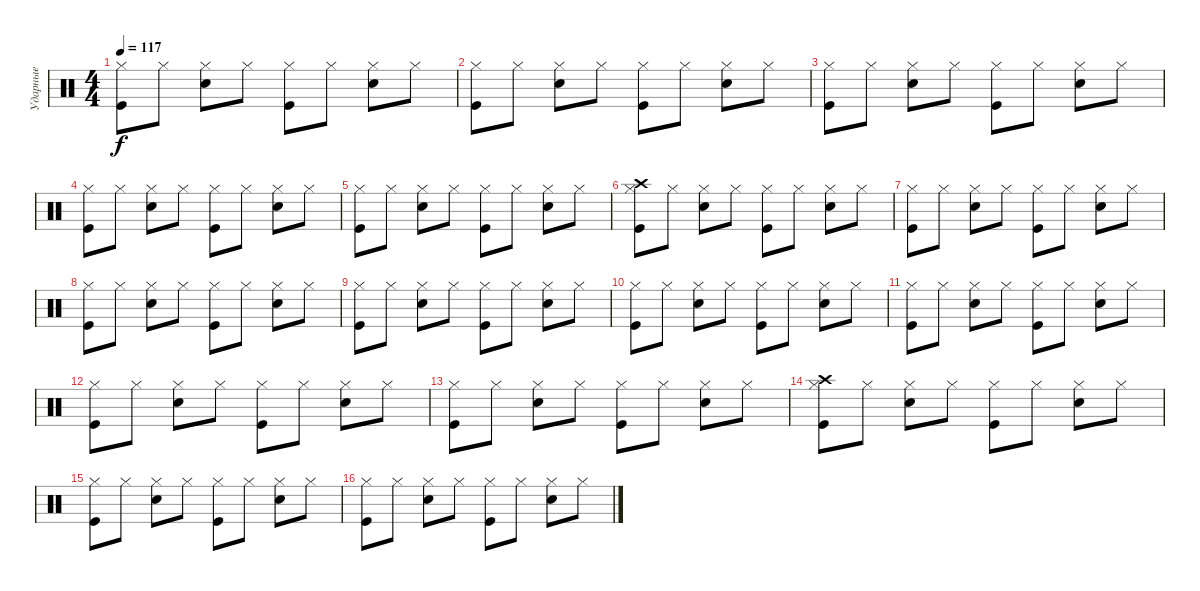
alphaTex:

\track ("Ударные" "Ударные") {instrument percussion}
\staff {score}
\articulation defaults
\ts (4 4)
\tempo 117
\clef neutral
\ks c
("Kick (hit)" "Hi-Hat (closed)").8{dy f} "Hi-Hat (closed)".8 ("Hi-Hat (closed)" "Snare (hit) 2").8 "Hi-Hat (closed)".8 ("Kick (hit)" "Hi-Hat (closed)").8 "Hi-Hat (closed)".8 ("Hi-Hat (closed)" "Snare (hit) 2").8 "Hi-Hat (closed)".8 |
("Kick (hit)" "Hi-Hat (closed)").8 "Hi-Hat (closed)".8 ("Hi-Hat (closed)" "Snare (hit) 2").8 "Hi-Hat (closed)".8 ("Kick (hit)" "Hi-Hat (closed)").8 "Hi-Hat (closed)".8 ("Hi-Hat (closed)" "Snare (hit) 2").8 "Hi-Hat (closed)".8 |
("Kick (hit)" "Hi-Hat (closed)").8 "Hi-Hat (closed)".8 ("Hi-Hat (closed)" "Snare (hit) 2").8 "Hi-Hat (closed)".8 ("Kick (hit)" "Hi-Hat (closed)").8 "Hi-Hat (closed)".8 ("Hi-Hat (closed)" "Snare (hit) 2").8 "Hi-Hat (closed)".8 |
("Kick (hit)" "Hi-Hat (closed)").8 "Hi-Hat (closed)".8 ("Hi-Hat (closed)" "Snare (hit) 2").8 "Hi-Hat (closed)".8 ("Kick (hit)" "Hi-Hat (closed)").8 "Hi-Hat (closed)".8 ("Hi-Hat (closed)" "Snare (hit) 2").8 "Hi-Hat (closed)".8 |
("Kick (hit)" "Hi-Hat (closed)").8 "Hi-Hat (closed)".8 ("Hi-Hat (closed)" "Snare (hit) 2").8 "Hi-Hat (closed)".8 ("Kick (hit)" "Hi-Hat (closed)").8 "Hi-Hat (closed)".8 ("Hi-Hat (closed)" "Snare (hit) 2").8 "Hi-Hat (closed)".8 |
("Kick (hit)" "Hi-Hat (closed)" "Crash high (hit)").8 "Hi-Hat (closed)".8 ("Hi-Hat (closed)" "Snare (hit) 2").8 "Hi-Hat (closed)".8 ("Kick (hit)" "Hi-Hat (closed)").8 "Hi-Hat (closed)".8 ("Hi-Hat (closed)" "Snare (hit) 2").8 "Hi-Hat (closed)".8 |
("Kick (hit)" "Hi-Hat (closed)").8 "Hi-Hat (closed)".8 ("Hi-Hat (closed)" "Snare (hit) 2").8 "Hi-Hat (closed)".8 ("Kick (hit)" "Hi-Hat (closed)").8 "Hi-Hat (closed)".8 ("Hi-Hat (closed)" "Snare (hit) 2").8 "Hi-Hat (closed)".8 |
("Kick (hit)" "Hi-Hat (closed)").8 "Hi-Hat (closed)".8 ("Hi-Hat (closed)" "Snare (hit) 2").8 "Hi-Hat (closed)".8 ("Kick (hit)" "Hi-Hat (closed)").8 "Hi-Hat (closed)".8 ("Hi-Hat (closed)" "Snare (hit) 2").8 "Hi-Hat (closed)".8 |
("Kick (hit)" "Hi-Hat (closed)").8 "Hi-Hat (closed)".8 ("Hi-Hat (closed)" "Snare (hit) 2").8 "Hi-Hat (closed)".8 ("Kick (hit)" "Hi-Hat (closed)").8 "Hi-Hat (closed)".8 ("Hi-Hat (closed)" "Snare (hit) 2").8 "Hi-Hat (closed)".8 |
("Kick (hit)" "Hi-Hat (closed)").8 "Hi-Hat (closed)".8 ("Hi-Hat (closed)" "Snare (hit) 2").8 "Hi-Hat (closed)".8 ("Kick (hit)" "Hi-Hat (closed)").8 "Hi-Hat (closed)".8 ("Hi-Hat (closed)" "Snare (hit) 2").8 "Hi-Hat (closed)".8 |
("Kick (hit)" "Hi-Hat (closed)").8 "Hi-Hat (closed)".8 ("Hi-Hat (closed)" "Snare (hit) 2").8 "Hi-Hat (closed)".8 ("Kick (hit)" "Hi-Hat (closed)").8 "Hi-Hat (closed)".8 ("Hi-Hat (closed)" "Snare (hit) 2").8 "Hi-Hat (closed)".8 |
("Kick (hit)" "Hi-Hat (closed)").8 "Hi-Hat (closed)".8 ("Hi-Hat (closed)" "Snare (hit) 2").8 "Hi-Hat (closed)".8 ("Kick (hit)" "Hi-Hat (closed)").8 "Hi-Hat (closed)".8 ("Hi-Hat (closed)" "Snare (hit) 2").8 "Hi-Hat (closed)".8 |
("Kick (hit)" "Hi-Hat (closed)").8 "Hi-Hat (closed)".8 ("Hi-Hat (closed)" "Snare (hit) 2").8 "Hi-Hat (closed)".8 ("Kick (hit)" "Hi-Hat (closed)").8 "Hi-Hat (closed)".8 ("Hi-Hat (closed)" "Snare (hit) 2").8 "Hi-Hat (closed)".8 |
("Kick (hit)" "Hi-Hat (closed)" "Crash high (hit)").8 "Hi-Hat (closed)".8 ("Hi-Hat (closed)" "Snare (hit) 2").8 "Hi-Hat (closed)".8 ("Kick (hit)" "Hi-Hat (closed)").8 "Hi-Hat (closed)".8 ("Hi-Hat (closed)" "Snare (hit) 2").8 "Hi-Hat (closed)".8 |
("Kick (hit)" "Hi-Hat (closed)").8 "Hi-Hat (closed)".8 ("Hi-Hat (closed)" "Snare (hit) 2").8 "Hi-Hat (closed)".8 ("Kick (hit)" "Hi-Hat (closed)").8 "Hi-Hat (closed)".8 ("Hi-Hat (closed)" "Snare (hit) 2").8 "Hi-Hat (closed)".8 |
("Kick (hit)" "Hi-Hat (closed)").8 "Hi-Hat (closed)".8 ("Hi-Hat (closed)" "Snare (hit) 2").8 "Hi-Hat (closed)".8 ("Kick (hit)" "Hi-Hat (closed)").8 "Hi-Hat (closed)".8 ("Hi-Hat (closed)" "Snare (hit) 2").8 "Hi-Hat (closed)".8
